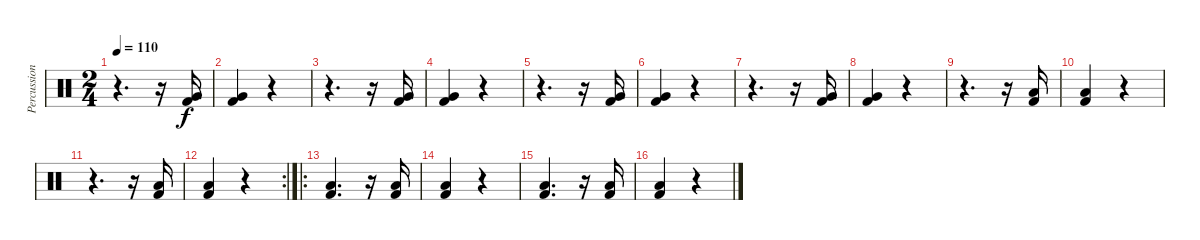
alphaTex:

\track ("Percussions" "Percussion") {instrument percussion}
\staff {score}
\articulation defaults
\ts (2 4)
\tempo 110
\clef neutral
\ks c
r.4{d dy f} r.16 ("Very Low Tom (hit)" "Kick (hit) 2").16 |
("Very Low Tom (hit)" "Kick (hit) 2").4 r.4 |
r.4{d} r.16 ("Very Low Tom (hit)" "Kick (hit) 2").16 |
("Very Low Tom (hit)" "Kick (hit) 2").4 r.4 |
r.4{d} r.16 ("Very Low Tom (hit)" "Kick (hit) 2").16 |
("Very Low Tom (hit)" "Kick (hit) 2").4 r.4 |
r.4{d} r.16 ("Very Low Tom (hit)" "Kick (hit) 2").16 |
("Very Low Tom (hit)" "Kick (hit) 2").4 r.4 |
r.4{d} r.16 ("Low Floor Tom (hit)" "Kick (hit) 2").16 |
("Low Floor Tom (hit)" "Kick (hit) 2").4 r.4 |
r.4{d} r.16 ("Low Floor Tom (hit)" "Kick (hit) 2").16 |
\rc 2
("Low Floor Tom (hit)" "Kick (hit) 2").4 r.4 |
\ro
("Low Floor Tom (hit)" "Kick (hit) 2").4{d} r.16 ("Low Floor Tom (hit)" "Kick (hit) 2").16 |
("Low Floor Tom (hit)" "Kick (hit) 2").4 r.4 |
("Low Floor Tom (hit)" "Kick (hit) 2").4{d} r.16 ("Low Floor Tom (hit)" "Kick (hit) 2").16 |
("Low Floor Tom (hit)" "Kick (hit) 2").4 r.4
